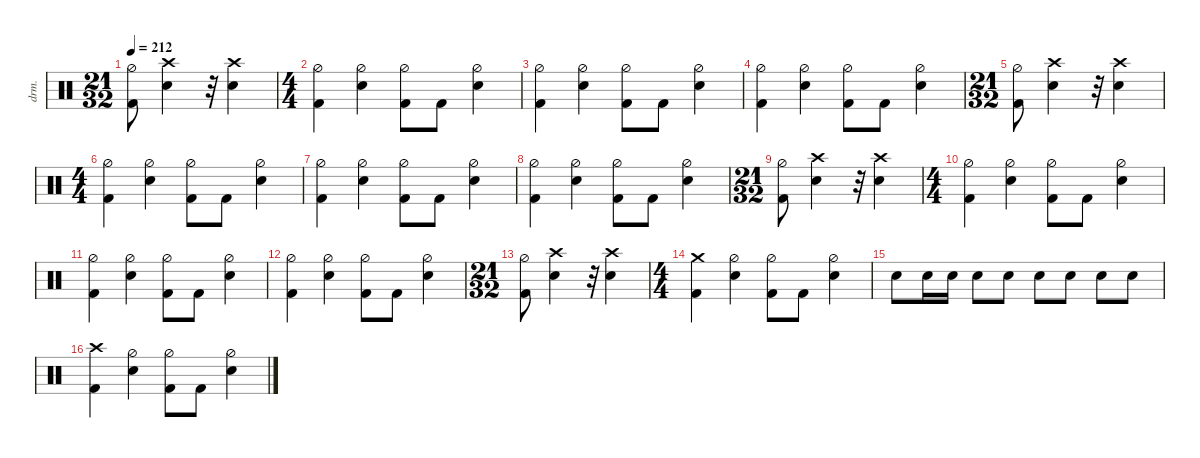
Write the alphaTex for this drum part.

\defaultSystemsLayout 4
\hideDynamics
\bracketExtendMode nobrackets
\track ("Drums" "drm.") {defaultSystemsLayout 4 multiBarRest instrument percussion}
\staff
\articulation defaults
\ts (21 32)
\beaming (8 3 2)
\tempo 212
\clef neutral
\ks c
("Kick (hit) 2" "Hi-Hat (half)").8{dy f} ("Snare (hit) 2" "Crash high (hit)").4 r.32 ("Snare (hit) 2" "Crash high (hit)").4 |
\ts (4 4)
\beaming (8 2 2 2 2)
("Kick (hit) 2" "Hi-Hat (half)").4 ("Hi-Hat (half)" "Snare (hit) 2").4 ("Hi-Hat (half)" "Kick (hit) 2").8 "Kick (hit) 2".8 ("Hi-Hat (half)" "Snare (hit) 2").4 |
("Kick (hit) 2" "Hi-Hat (half)").4 ("Hi-Hat (half)" "Snare (hit) 2").4 ("Hi-Hat (half)" "Kick (hit) 2").8 "Kick (hit) 2".8 ("Hi-Hat (half)" "Snare (hit) 2").4 |
("Kick (hit) 2" "Hi-Hat (half)").4 ("Hi-Hat (half)" "Snare (hit) 2").4 ("Hi-Hat (half)" "Kick (hit) 2").8 "Kick (hit) 2".8 ("Hi-Hat (half)" "Snare (hit) 2").4 |
\ts (21 32)
\beaming (8 3 2)
("Kick (hit) 2" "Hi-Hat (half)").8 ("Snare (hit) 2" "Crash high (hit)").4 r.32 ("Snare (hit) 2" "Crash high (hit)").4 |
\ts (4 4)
\beaming (8 2 2 2 2)
("Kick (hit) 2" "Hi-Hat (half)").4 ("Hi-Hat (half)" "Snare (hit) 2").4 ("Hi-Hat (half)" "Kick (hit) 2").8 "Kick (hit) 2".8 ("Hi-Hat (half)" "Snare (hit) 2").4 |
("Kick (hit) 2" "Hi-Hat (half)").4 ("Hi-Hat (half)" "Snare (hit) 2").4 ("Hi-Hat (half)" "Kick (hit) 2").8 "Kick (hit) 2".8 ("Hi-Hat (half)" "Snare (hit) 2").4 |
("Kick (hit) 2" "Hi-Hat (half)").4 ("Hi-Hat (half)" "Snare (hit) 2").4 ("Hi-Hat (half)" "Kick (hit) 2").8 "Kick (hit) 2".8 ("Hi-Hat (half)" "Snare (hit) 2").4 |
\ts (21 32)
\beaming (8 3 2)
("Kick (hit) 2" "Hi-Hat (half)").8 ("Snare (hit) 2" "Crash high (hit)").4 r.32 ("Snare (hit) 2" "Crash high (hit)").4 |
\ts (4 4)
\beaming (8 2 2 2 2)
("Kick (hit) 2" "Hi-Hat (half)").4 ("Hi-Hat (half)" "Snare (hit) 2").4 ("Hi-Hat (half)" "Kick (hit) 2").8 "Kick (hit) 2".8 ("Hi-Hat (half)" "Snare (hit) 2").4 |
("Kick (hit) 2" "Hi-Hat (half)").4 ("Hi-Hat (half)" "Snare (hit) 2").4 ("Hi-Hat (half)" "Kick (hit) 2").8 "Kick (hit) 2".8 ("Hi-Hat (half)" "Snare (hit) 2").4 |
("Kick (hit) 2" "Hi-Hat (half)").4 ("Hi-Hat (half)" "Snare (hit) 2").4 ("Hi-Hat (half)" "Kick (hit) 2").8 "Kick (hit) 2".8 ("Hi-Hat (half)" "Snare (hit) 2").4 |
\ts (21 32)
\beaming (8 3 2)
("Kick (hit) 2" "Hi-Hat (half)").8 ("Snare (hit) 2" "Crash high (hit)").4 r.32 ("Snare (hit) 2" "Crash high (hit)").4 |
\ts (4 4)
\beaming (8 2 2 2 2)
("Crash medium (hit)" "Kick (hit) 2").4 ("Hi-Hat (half)" "Snare (hit) 2").4 ("Hi-Hat (half)" "Kick (hit) 2").8 "Kick (hit) 2".8 ("Hi-Hat (half)" "Snare (hit) 2").4 |
"Snare (hit) 2".8 "Snare (hit) 2".16 "Snare (hit) 2".16 "Snare (hit) 2".8 "Snare (hit) 2".8 "Snare (hit) 2".8 "Snare (hit) 2".8 "Snare (hit) 2".8 "Snare (hit) 2".8 |
("Crash high (hit)" "Kick (hit) 2").4 ("Hi-Hat (half)" "Snare (hit) 2").4 ("Hi-Hat (half)" "Kick (hit) 2").8 "Kick (hit) 2".8 ("Hi-Hat (half)" "Snare (hit) 2").4
